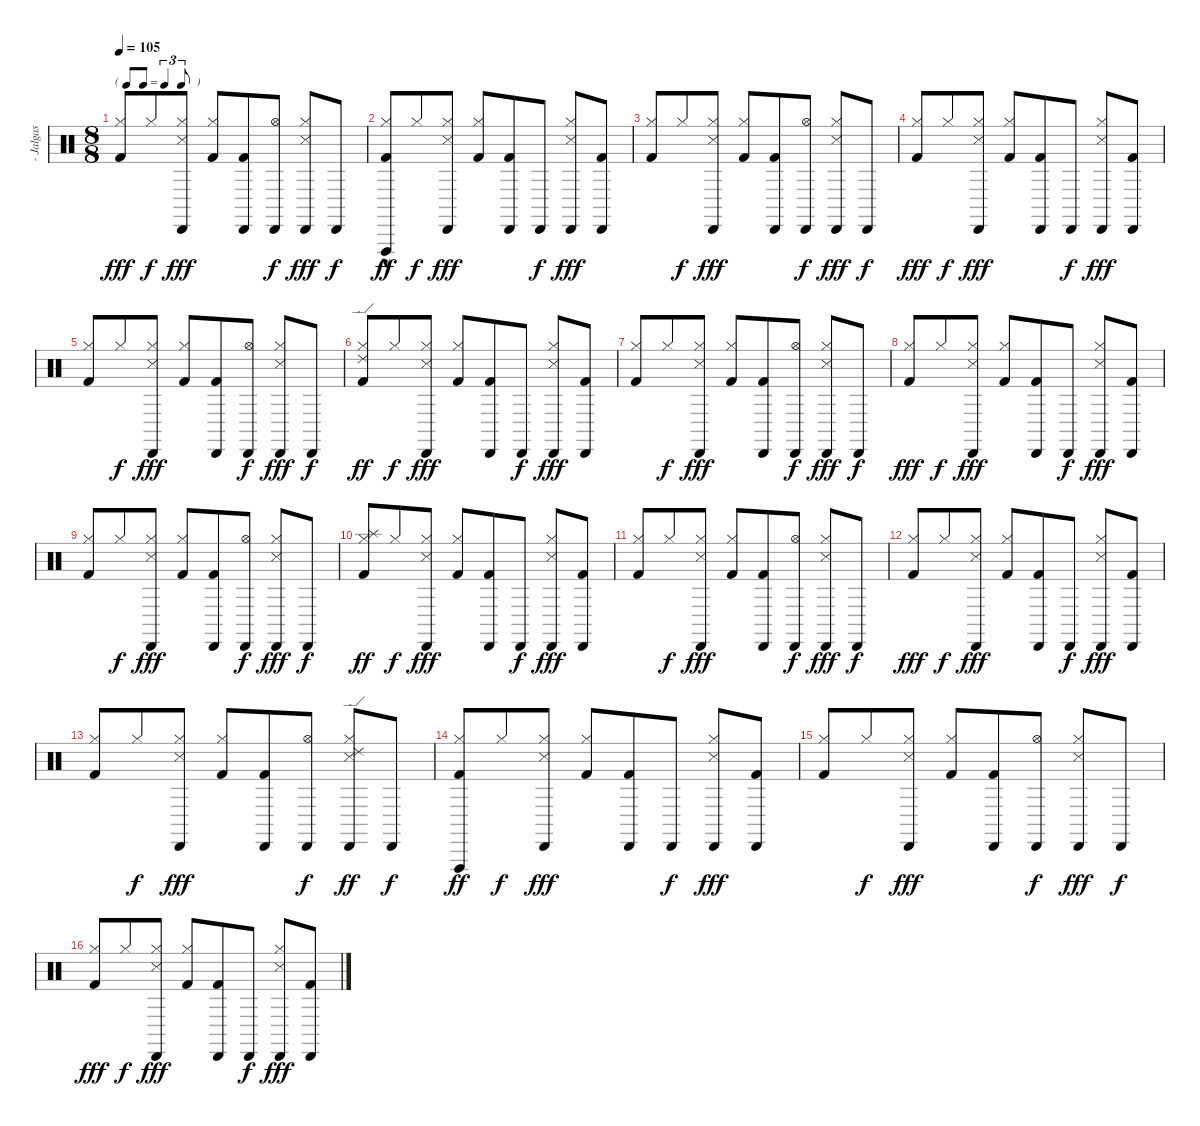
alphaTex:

\track (" - Jalgas -" " - Jalgas ") {instrument percussion}
\staff {score}
\articulation defaults
\ts (8 8)
\tf triplet8th
\tempo 105
\clef neutral
\ks c
("Kick (hit) 2" "Hi-Hat (closed)").8{dy fff} "Hi-Hat (closed)".8{dy f} ("Snare (side stick) 3" "Hi-Hat (closed)" "Cabasa (hit)").8{dy fff} ("Kick (hit) 2" "Hi-Hat (closed)").8 ("Kick (hit) 2" "Cabasa (hit)").8 ("Hi-Hat (open)" "Cabasa (hit)").8{dy f} ("Snare (side stick) 3" "Hi-Hat (closed)" "Cabasa (hit)").8{dy fff} "Cabasa (hit)".8{dy f} |
("Kick (hit) 2" "Hi-Hat (closed)" "Vibraslap (hit)"{hac}).8{dy ff} "Hi-Hat (closed)".8{dy f} ("Snare (side stick) 3" "Hi-Hat (closed)" "Cabasa (hit)").8{dy fff} ("Kick (hit) 2" "Hi-Hat (closed)").8 ("Kick (hit) 2" "Cabasa (hit)").8 "Cabasa (hit)".8{dy f} ("Snare (side stick) 3" "Hi-Hat (closed)" "Cabasa (hit)").8{dy fff} ("Kick (hit) 2" "Cabasa (hit)").8 |
("Kick (hit) 2" "Hi-Hat (closed)").8 "Hi-Hat (closed)".8{dy f} ("Snare (side stick) 3" "Hi-Hat (closed)" "Cabasa (hit)").8{dy fff} ("Kick (hit) 2" "Hi-Hat (closed)").8 ("Kick (hit) 2" "Cabasa (hit)").8 ("Hi-Hat (open)" "Cabasa (hit)").8{dy f} ("Snare (side stick) 3" "Hi-Hat (closed)" "Cabasa (hit)").8{dy fff} "Cabasa (hit)".8{dy f} |
("Kick (hit) 2" "Hi-Hat (closed)").8{dy fff} "Hi-Hat (closed)".8{dy f} ("Snare (side stick) 3" "Hi-Hat (closed)" "Cabasa (hit)").8{dy fff} ("Kick (hit) 2" "Hi-Hat (closed)").8 ("Kick (hit) 2" "Cabasa (hit)").8 "Cabasa (hit)".8{dy f} ("Snare (side stick) 3" "Hi-Hat (closed)" "Cabasa (hit)").8{dy fff} ("Kick (hit) 2" "Cabasa (hit)").8 |
("Kick (hit) 2" "Hi-Hat (closed)").8 "Hi-Hat (closed)".8{dy f} ("Snare (side stick) 3" "Hi-Hat (closed)" "Cabasa (hit)").8{dy fff} ("Kick (hit) 2" "Hi-Hat (closed)").8 ("Kick (hit) 2" "Cabasa (hit)").8 ("Hi-Hat (open)" "Cabasa (hit)").8{dy f} ("Snare (side stick) 3" "Hi-Hat (closed)" "Cabasa (hit)").8{dy fff} "Cabasa (hit)".8{dy f} |
("Kick (hit) 2" "Hi-Hat (closed)" "Ride (edge) 2").8{dy ff} "Hi-Hat (closed)".8{dy f} ("Snare (side stick) 3" "Hi-Hat (closed)" "Cabasa (hit)").8{dy fff} ("Kick (hit) 2" "Hi-Hat (closed)").8 ("Kick (hit) 2" "Cabasa (hit)").8 "Cabasa (hit)".8{dy f} ("Snare (side stick) 3" "Hi-Hat (closed)" "Cabasa (hit)").8{dy fff} ("Kick (hit) 2" "Cabasa (hit)").8 |
("Kick (hit) 2" "Hi-Hat (closed)").8 "Hi-Hat (closed)".8{dy f} ("Snare (side stick) 3" "Hi-Hat (closed)" "Cabasa (hit)").8{dy fff} ("Kick (hit) 2" "Hi-Hat (closed)").8 ("Kick (hit) 2" "Cabasa (hit)").8 ("Hi-Hat (open)" "Cabasa (hit)").8{dy f} ("Snare (side stick) 3" "Hi-Hat (closed)" "Cabasa (hit)").8{dy fff} "Cabasa (hit)".8{dy f} |
("Kick (hit) 2" "Hi-Hat (closed)").8{dy fff} "Hi-Hat (closed)".8{dy f} ("Snare (side stick) 3" "Hi-Hat (closed)" "Cabasa (hit)").8{dy fff} ("Kick (hit) 2" "Hi-Hat (closed)").8 ("Kick (hit) 2" "Cabasa (hit)").8 "Cabasa (hit)".8{dy f} ("Snare (side stick) 3" "Hi-Hat (closed)" "Cabasa (hit)").8{dy fff} ("Kick (hit) 2" "Cabasa (hit)").8 |
("Kick (hit) 2" "Hi-Hat (closed)").8 "Hi-Hat (closed)".8{dy f} ("Snare (side stick) 3" "Hi-Hat (closed)" "Cabasa (hit)").8{dy fff} ("Kick (hit) 2" "Hi-Hat (closed)").8 ("Kick (hit) 2" "Cabasa (hit)").8 ("Hi-Hat (open)" "Cabasa (hit)").8{dy f} ("Snare (side stick) 3" "Hi-Hat (closed)" "Cabasa (hit)").8{dy fff} "Cabasa (hit)".8{dy f} |
("Kick (hit) 2" "Hi-Hat (closed)" "Splash (hit)").8{dy ff} "Hi-Hat (closed)".8{dy f} ("Snare (side stick) 3" "Hi-Hat (closed)" "Cabasa (hit)").8{dy fff} ("Kick (hit) 2" "Hi-Hat (closed)").8 ("Kick (hit) 2" "Cabasa (hit)").8 "Cabasa (hit)".8{dy f} ("Snare (side stick) 3" "Hi-Hat (closed)" "Cabasa (hit)").8{dy fff} ("Kick (hit) 2" "Cabasa (hit)").8 |
("Kick (hit) 2" "Hi-Hat (closed)").8 "Hi-Hat (closed)".8{dy f} ("Snare (side stick) 3" "Hi-Hat (closed)" "Cabasa (hit)").8{dy fff} ("Kick (hit) 2" "Hi-Hat (closed)").8 ("Kick (hit) 2" "Cabasa (hit)").8 ("Hi-Hat (open)" "Cabasa (hit)").8{dy f} ("Snare (side stick) 3" "Hi-Hat (closed)" "Cabasa (hit)").8{dy fff} "Cabasa (hit)".8{dy f} |
("Kick (hit) 2" "Hi-Hat (closed)").8{dy fff} "Hi-Hat (closed)".8{dy f} ("Snare (side stick) 3" "Hi-Hat (closed)" "Cabasa (hit)").8{dy fff} ("Kick (hit) 2" "Hi-Hat (closed)").8 ("Kick (hit) 2" "Cabasa (hit)").8 "Cabasa (hit)".8{dy f} ("Snare (side stick) 3" "Hi-Hat (closed)" "Cabasa (hit)").8{dy fff} ("Kick (hit) 2" "Cabasa (hit)").8 |
("Kick (hit) 2" "Hi-Hat (closed)").8 "Hi-Hat (closed)".8{dy f} ("Snare (side stick) 3" "Hi-Hat (closed)" "Cabasa (hit)").8{dy fff} ("Kick (hit) 2" "Hi-Hat (closed)").8 ("Kick (hit) 2" "Cabasa (hit)").8 ("Hi-Hat (open)" "Cabasa (hit)").8{dy f} ("Snare (side stick) 3" "Hi-Hat (closed)" "Cabasa (hit)" "Ride (edge) 2").8{dy ff} "Cabasa (hit)".8{dy f} |
("Kick (hit) 2" "Hi-Hat (closed)" "Vibraslap (hit)").8{dy ff} "Hi-Hat (closed)".8{dy f} ("Snare (side stick) 3" "Hi-Hat (closed)" "Cabasa (hit)").8{dy fff} ("Kick (hit) 2" "Hi-Hat (closed)").8 ("Kick (hit) 2" "Cabasa (hit)").8 "Cabasa (hit)".8{dy f} ("Snare (side stick) 3" "Hi-Hat (closed)" "Cabasa (hit)").8{dy fff} ("Kick (hit) 2" "Cabasa (hit)").8 |
("Kick (hit) 2" "Hi-Hat (closed)").8 "Hi-Hat (closed)".8{dy f} ("Snare (side stick) 3" "Hi-Hat (closed)" "Cabasa (hit)").8{dy fff} ("Kick (hit) 2" "Hi-Hat (closed)").8 ("Kick (hit) 2" "Cabasa (hit)").8 ("Hi-Hat (open)" "Cabasa (hit)").8{dy f} ("Snare (side stick) 3" "Hi-Hat (closed)" "Cabasa (hit)").8{dy fff} "Cabasa (hit)".8{dy f} |
("Kick (hit) 2" "Hi-Hat (closed)").8{dy fff} "Hi-Hat (closed)".8{dy f} ("Snare (side stick) 3" "Hi-Hat (closed)" "Cabasa (hit)").8{dy fff} ("Kick (hit) 2" "Hi-Hat (closed)").8 ("Kick (hit) 2" "Cabasa (hit)").8 "Cabasa (hit)".8{dy f} ("Snare (side stick) 3" "Hi-Hat (closed)" "Cabasa (hit)").8{dy fff} ("Kick (hit) 2" "Cabasa (hit)").8
